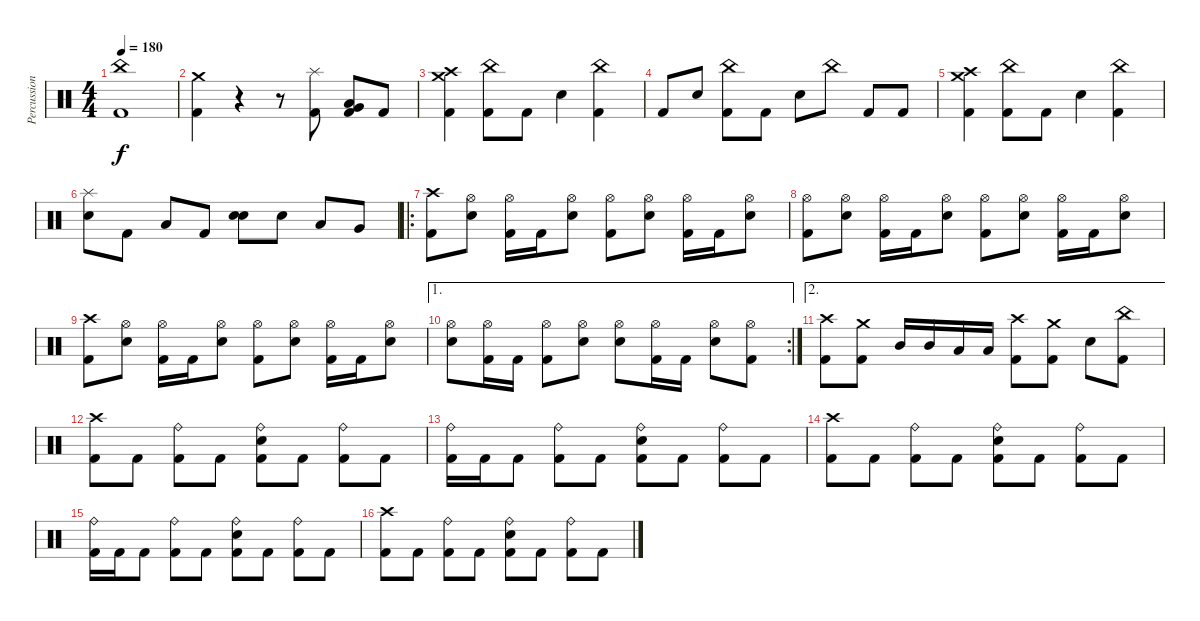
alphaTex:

\track ("Percussions" "Percussion") {instrument percussion}
\staff {score}
\articulation defaults
\ts (4 4)
\tempo 180
\clef neutral
\ks c
("China (hit)" "Kick (hit) 2").1{dy f} |
("Crash medium (hit)" "Kick (hit) 2").4 r.4 r.8 ("Splash (hit)" "Kick (hit) 2").8 ("Very Low Tom (hit)" "Low Floor Tom (hit)" "Kick (hit) 2").8{bd 120} "Kick (hit) 2".8 |
("Crash medium (hit)" "Crash high (hit)" "Kick (hit) 2").4 ("China (hit)" "Kick (hit) 2").8 "Kick (hit) 2".8 "Snare (hit) 2".4 ("China (hit)" "Kick (hit) 2").4 |
"Kick (hit) 2".8 "Snare (hit) 2".8 ("China (hit)" "Kick (hit) 2").8 "Kick (hit) 2".8 "Snare (hit) 2".8 "China (hit)".8 "Kick (hit) 2".8 "Kick (hit) 2".8 |
("Crash medium (hit)" "Crash high (hit)" "Kick (hit) 2").4 ("China (hit)" "Kick (hit) 2").8 "Kick (hit) 2".8 "Snare (hit) 2".4 ("China (hit)" "Kick (hit) 2").4 |
("Splash (hit)" "Snare (hit) 2").8 "Kick (hit) 2".8 "Low Tom (hit)".8 "Kick (hit) 2".8 ("Snare (hit) 2" "Snare (hit) 2").8{bd 120} "Snare (hit) 2".8 "Low Tom (hit)".8 "Very Low Tom (hit)".8 |
\ro
("Crash high (hit)" "Kick (hit) 2").8 ("Hi-Hat (open)" "Snare (hit) 2").8 ("Hi-Hat (open)" "Kick (hit) 2").16 "Kick (hit) 2".16 ("Hi-Hat (open)" "Snare (hit) 2").8 ("Hi-Hat (open)" "Kick (hit) 2").8 ("Hi-Hat (open)" "Snare (hit) 2").8 ("Hi-Hat (open)" "Kick (hit) 2").16 "Kick (hit) 2".16 ("Hi-Hat (open)" "Snare (hit) 2").8 |
("Hi-Hat (open)" "Kick (hit) 2").8 ("Hi-Hat (open)" "Snare (hit) 2").8 ("Hi-Hat (open)" "Kick (hit) 2").16 "Kick (hit) 2".16 ("Hi-Hat (open)" "Snare (hit) 2").8 ("Hi-Hat (open)" "Kick (hit) 2").8 ("Hi-Hat (open)" "Snare (hit) 2").8 ("Hi-Hat (open)" "Kick (hit) 2").16 "Kick (hit) 2".16 ("Hi-Hat (open)" "Snare (hit) 2").8 |
("Crash high (hit)" "Kick (hit) 2").8 ("Hi-Hat (open)" "Snare (hit) 2").8 ("Hi-Hat (open)" "Kick (hit) 2").16 "Kick (hit) 2".16 ("Hi-Hat (open)" "Snare (hit) 2").8 ("Hi-Hat (open)" "Kick (hit) 2").8 ("Hi-Hat (open)" "Snare (hit) 2").8 ("Hi-Hat (open)" "Kick (hit) 2").16 "Kick (hit) 2".16 ("Hi-Hat (open)" "Snare (hit) 2").8 |
\ae 1
\rc 2
("Hi-Hat (open)" "Snare (hit) 2").8 ("Hi-Hat (open)" "Kick (hit) 2").16 "Kick (hit) 2".16 ("Hi-Hat (open)" "Kick (hit) 2").8 ("Hi-Hat (open)" "Snare (hit) 2").8 ("Hi-Hat (open)" "Snare (hit) 2").8 ("Hi-Hat (open)" "Kick (hit) 2").16 "Kick (hit) 2".16 ("Hi-Hat (open)" "Snare (hit) 2").8 ("Hi-Hat (open)" "Kick (hit) 2").8 |
\ae 2
("Crash high (hit)" "Kick (hit) 2").8 ("Crash medium (hit)" "Kick (hit) 2").8 "Mid Tom (hit)".16 "Mid Tom (hit)".16 "Low Tom (hit)".16 "Low Tom (hit)".16 ("Crash high (hit)" "Kick (hit) 2").8 ("Crash medium (hit)" "Kick (hit) 2").8 "Snare (hit) 2".8 ("China (hit)" "Kick (hit) 2").8 |
("Crash high (hit)" "Kick (hit) 2").8 "Kick (hit) 2".8 ("Ride (bell)" "Kick (hit) 2").8 "Kick (hit) 2".8 ("Ride (bell)" "Snare (hit) 2" "Kick (hit) 2").8 "Kick (hit) 2".8 ("Ride (bell)" "Kick (hit) 2").8 "Kick (hit) 2".8 |
("Ride (bell)" "Kick (hit) 2").16 "Kick (hit) 2".16 "Kick (hit) 2".8 ("Ride (bell)" "Kick (hit) 2").8 "Kick (hit) 2".8 ("Ride (bell)" "Snare (hit) 2" "Kick (hit) 2").8 "Kick (hit) 2".8 ("Ride (bell)" "Kick (hit) 2").8 "Kick (hit) 2".8 |
("Crash high (hit)" "Kick (hit) 2").8 "Kick (hit) 2".8 ("Ride (bell)" "Kick (hit) 2").8 "Kick (hit) 2".8 ("Ride (bell)" "Snare (hit) 2" "Kick (hit) 2").8 "Kick (hit) 2".8 ("Ride (bell)" "Kick (hit) 2").8 "Kick (hit) 2".8 |
("Ride (bell)" "Kick (hit) 2").16 "Kick (hit) 2".16 "Kick (hit) 2".8 ("Ride (bell)" "Kick (hit) 2").8 "Kick (hit) 2".8 ("Ride (bell)" "Snare (hit) 2" "Kick (hit) 2").8 "Kick (hit) 2".8 ("Ride (bell)" "Kick (hit) 2").8 "Kick (hit) 2".8 |
("Crash high (hit)" "Kick (hit) 2").8 "Kick (hit) 2".8 ("Ride (bell)" "Kick (hit) 2").8 "Kick (hit) 2".8 ("Ride (bell)" "Snare (hit) 2" "Kick (hit) 2").8 "Kick (hit) 2".8 ("Ride (bell)" "Kick (hit) 2").8 "Kick (hit) 2".8
